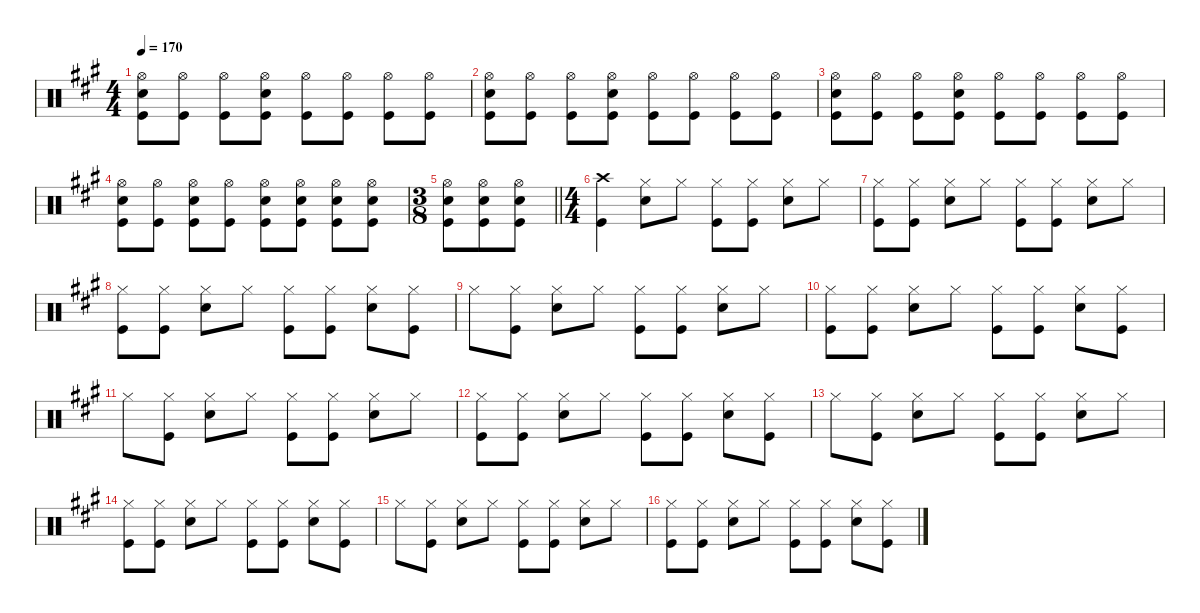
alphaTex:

\defaultSystemsLayout 4
\hideDynamics
\bracketExtendMode nobrackets
\singleTrackTrackNamePolicy hidden
\multiTrackTrackNamePolicy hidden
\firstSystemTrackNameMode fullname
\firstSystemTrackNameOrientation horizontal
\otherSystemsTrackNameOrientation horizontal
\track ("Percussion" "drm.") {defaultSystemsLayout 4 instrument percussion}
\staff {score}
\articulation defaults
\ts (4 4)
\beaming (8 2 2 2 2)
\tempo 170
\clef neutral
\ks a
("Hi-Hat (open)"{acc forcenatural} "Snare (hit) 2"{acc forcenatural} "Kick (hit)"{acc forcenatural}).8{dy f beam Down} ("Hi-Hat (open)"{acc forcenatural} "Kick (hit)"{acc forcenatural}).8{beam Down} ("Hi-Hat (open)"{acc forcenatural} "Kick (hit)"{acc forcenatural}).8{beam Down} ("Hi-Hat (open)"{acc forcenatural} "Snare (hit) 2"{acc forcenatural} "Kick (hit)"{acc forcenatural}).8{beam Down} ("Hi-Hat (open)"{acc forcenatural} "Kick (hit)"{acc forcenatural}).8{beam Down} ("Hi-Hat (open)"{acc forcenatural} "Kick (hit)"{acc forcenatural}).8{beam Down} ("Hi-Hat (open)"{acc forcenatural} "Kick (hit)"{acc forcenatural}).8{beam Down} ("Hi-Hat (open)"{acc forcenatural} "Kick (hit)"{acc forcenatural}).8{beam Down} |
("Hi-Hat (open)"{acc forcenatural} "Snare (hit) 2"{acc forcenatural} "Kick (hit)"{acc forcenatural}).8{beam Down} ("Hi-Hat (open)"{acc forcenatural} "Kick (hit)"{acc forcenatural}).8{beam Down} ("Hi-Hat (open)"{acc forcenatural} "Kick (hit)"{acc forcenatural}).8{beam Down} ("Hi-Hat (open)"{acc forcenatural} "Snare (hit) 2"{acc forcenatural} "Kick (hit)"{acc forcenatural}).8{beam Down} ("Hi-Hat (open)"{acc forcenatural} "Kick (hit)"{acc forcenatural}).8{beam Down} ("Hi-Hat (open)"{acc forcenatural} "Kick (hit)"{acc forcenatural}).8{beam Down} ("Hi-Hat (open)"{acc forcenatural} "Kick (hit)"{acc forcenatural}).8{beam Down} ("Hi-Hat (open)"{acc forcenatural} "Kick (hit)"{acc forcenatural}).8{beam Down} |
("Hi-Hat (open)"{acc forcenatural} "Snare (hit) 2"{acc forcenatural} "Kick (hit)"{acc forcenatural}).8{beam Down} ("Hi-Hat (open)"{acc forcenatural} "Kick (hit)"{acc forcenatural}).8{beam Down} ("Hi-Hat (open)"{acc forcenatural} "Kick (hit)"{acc forcenatural}).8{beam Down} ("Hi-Hat (open)"{acc forcenatural} "Snare (hit) 2"{acc forcenatural} "Kick (hit)"{acc forcenatural}).8{beam Down} ("Hi-Hat (open)"{acc forcenatural} "Kick (hit)"{acc forcenatural}).8{beam Down} ("Hi-Hat (open)"{acc forcenatural} "Kick (hit)"{acc forcenatural}).8{beam Down} ("Hi-Hat (open)"{acc forcenatural} "Kick (hit)"{acc forcenatural}).8{beam Down} ("Hi-Hat (open)"{acc forcenatural} "Kick (hit)"{acc forcenatural}).8{beam Down} |
("Hi-Hat (open)"{acc forcenatural} "Snare (hit) 2"{acc forcenatural} "Kick (hit)"{acc forcenatural}).8{beam Down} ("Hi-Hat (open)"{acc forcenatural} "Kick (hit)"{acc forcenatural}).8{beam Down} ("Hi-Hat (open)"{acc forcenatural} "Snare (hit) 2"{acc forcenatural} "Kick (hit)"{acc forcenatural}).8{beam Down} ("Hi-Hat (open)"{acc forcenatural} "Kick (hit)"{acc forcenatural}).8{beam Down} ("Hi-Hat (open)"{acc forcenatural} "Snare (hit) 2"{acc forcenatural} "Kick (hit)"{acc forcenatural}).8{beam Down} ("Hi-Hat (open)"{acc forcenatural} "Snare (hit) 2"{acc forcenatural} "Kick (hit)"{acc forcenatural}).8{beam Down} ("Hi-Hat (open)"{acc forcenatural} "Snare (hit) 2"{acc forcenatural} "Kick (hit)"{acc forcenatural}).8{beam Down} ("Hi-Hat (open)"{acc forcenatural} "Snare (hit) 2"{acc forcenatural} "Kick (hit)"{acc forcenatural}).8{beam Down} |
\ts (3 8)
\beaming (8 3)
\barLineRight lightlight
("Hi-Hat (open)"{acc forcenatural} "Snare (hit) 2"{acc forcenatural} "Kick (hit)"{acc forcenatural}).8{beam Down} ("Hi-Hat (open)"{acc forcenatural} "Snare (hit) 2"{acc forcenatural} "Kick (hit)"{acc forcenatural}).8{beam Down} ("Hi-Hat (open)"{acc forcenatural} "Snare (hit) 2"{acc forcenatural} "Kick (hit)"{acc forcenatural}).8{beam Down} |
\ts (4 4)
\beaming (8 2 2 2 2)
("Crash high (hit)"{acc forcenatural} "Kick (hit)"{acc forcenatural}).4{beam Down} ("Hi-Hat (closed)"{acc forcenatural} "Snare (hit) 2"{acc forcenatural}).8{beam Down} "Hi-Hat (closed)"{acc forcenatural}.8{beam Down} ("Hi-Hat (closed)"{acc forcenatural} "Kick (hit)"{acc forcenatural}).8{beam Down} ("Hi-Hat (closed)"{acc forcenatural} "Kick (hit)"{acc forcenatural}).8{beam Down} ("Hi-Hat (closed)"{acc forcenatural} "Snare (hit) 2"{acc forcenatural}).8{beam Down} "Hi-Hat (closed)"{acc forcenatural}.8{beam Down} |
("Hi-Hat (closed)"{acc forcenatural} "Kick (hit)"{acc forcenatural}).8{beam Down} ("Hi-Hat (closed)"{acc forcenatural} "Kick (hit)"{acc forcenatural}).8{beam Down} ("Hi-Hat (closed)"{acc forcenatural} "Snare (hit) 2"{acc forcenatural}).8{beam Down} "Hi-Hat (closed)"{acc forcenatural}.8{beam Down} ("Hi-Hat (closed)"{acc forcenatural} "Kick (hit)"{acc forcenatural}).8{beam Down} ("Hi-Hat (closed)"{acc forcenatural} "Kick (hit)"{acc forcenatural}).8{beam Down} ("Hi-Hat (closed)"{acc forcenatural} "Snare (hit) 2"{acc forcenatural}).8{beam Down} "Hi-Hat (closed)"{acc forcenatural}.8{beam Down} |
("Hi-Hat (closed)"{acc forcenatural} "Kick (hit)"{acc forcenatural}).8{beam Down} ("Hi-Hat (closed)"{acc forcenatural} "Kick (hit)"{acc forcenatural}).8{beam Down} ("Hi-Hat (closed)"{acc forcenatural} "Snare (hit) 2"{acc forcenatural}).8{beam Down} "Hi-Hat (closed)"{acc forcenatural}.8{beam Down} ("Hi-Hat (closed)"{acc forcenatural} "Kick (hit)"{acc forcenatural}).8{beam Down} ("Hi-Hat (closed)"{acc forcenatural} "Kick (hit)"{acc forcenatural}).8{beam Down} ("Hi-Hat (closed)"{acc forcenatural} "Snare (hit) 2"{acc forcenatural}).8{beam Down} ("Hi-Hat (closed)"{acc forcenatural} "Kick (hit)"{acc forcenatural}).8{beam Down} |
"Hi-Hat (closed)"{acc forcenatural}.8{beam Down} ("Hi-Hat (closed)"{acc forcenatural} "Kick (hit)"{acc forcenatural}).8{beam Down} ("Hi-Hat (closed)"{acc forcenatural} "Snare (hit) 2"{acc forcenatural}).8{beam Down} "Hi-Hat (closed)"{acc forcenatural}.8{beam Down} ("Hi-Hat (closed)"{acc forcenatural} "Kick (hit)"{acc forcenatural}).8{beam Down} ("Hi-Hat (closed)"{acc forcenatural} "Kick (hit)"{acc forcenatural}).8{beam Down} ("Hi-Hat (closed)"{acc forcenatural} "Snare (hit) 2"{acc forcenatural}).8{beam Down} "Hi-Hat (closed)"{acc forcenatural}.8{beam Down} |
("Hi-Hat (closed)"{acc forcenatural} "Kick (hit)"{acc forcenatural}).8{beam Down} ("Hi-Hat (closed)"{acc forcenatural} "Kick (hit)"{acc forcenatural}).8{beam Down} ("Hi-Hat (closed)"{acc forcenatural} "Snare (hit) 2"{acc forcenatural}).8{beam Down} "Hi-Hat (closed)"{acc forcenatural}.8{beam Down} ("Hi-Hat (closed)"{acc forcenatural} "Kick (hit)"{acc forcenatural}).8{beam Down} ("Hi-Hat (closed)"{acc forcenatural} "Kick (hit)"{acc forcenatural}).8{beam Down} ("Hi-Hat (closed)"{acc forcenatural} "Snare (hit) 2"{acc forcenatural}).8{beam Down} ("Hi-Hat (closed)"{acc forcenatural} "Kick (hit)"{acc forcenatural}).8{beam Down} |
"Hi-Hat (closed)"{acc forcenatural}.8{beam Down} ("Hi-Hat (closed)"{acc forcenatural} "Kick (hit)"{acc forcenatural}).8{beam Down} ("Hi-Hat (closed)"{acc forcenatural} "Snare (hit) 2"{acc forcenatural}).8{beam Down} "Hi-Hat (closed)"{acc forcenatural}.8{beam Down} ("Hi-Hat (closed)"{acc forcenatural} "Kick (hit)"{acc forcenatural}).8{beam Down} ("Hi-Hat (closed)"{acc forcenatural} "Kick (hit)"{acc forcenatural}).8{beam Down} ("Hi-Hat (closed)"{acc forcenatural} "Snare (hit) 2"{acc forcenatural}).8{beam Down} "Hi-Hat (closed)"{acc forcenatural}.8{beam Down} |
("Hi-Hat (closed)"{acc forcenatural} "Kick (hit)"{acc forcenatural}).8{beam Down} ("Hi-Hat (closed)"{acc forcenatural} "Kick (hit)"{acc forcenatural}).8{beam Down} ("Hi-Hat (closed)"{acc forcenatural} "Snare (hit) 2"{acc forcenatural}).8{beam Down} "Hi-Hat (closed)"{acc forcenatural}.8{beam Down} ("Hi-Hat (closed)"{acc forcenatural} "Kick (hit)"{acc forcenatural}).8{beam Down} ("Hi-Hat (closed)"{acc forcenatural} "Kick (hit)"{acc forcenatural}).8{beam Down} ("Hi-Hat (closed)"{acc forcenatural} "Snare (hit) 2"{acc forcenatural}).8{beam Down} ("Hi-Hat (closed)"{acc forcenatural} "Kick (hit)"{acc forcenatural}).8{beam Down} |
"Hi-Hat (closed)"{acc forcenatural}.8{beam Down} ("Hi-Hat (closed)"{acc forcenatural} "Kick (hit)"{acc forcenatural}).8{beam Down} ("Hi-Hat (closed)"{acc forcenatural} "Snare (hit) 2"{acc forcenatural}).8{beam Down} "Hi-Hat (closed)"{acc forcenatural}.8{beam Down} ("Hi-Hat (closed)"{acc forcenatural} "Kick (hit)"{acc forcenatural}).8{beam Down} ("Hi-Hat (closed)"{acc forcenatural} "Kick (hit)"{acc forcenatural}).8{beam Down} ("Hi-Hat (closed)"{acc forcenatural} "Snare (hit) 2"{acc forcenatural}).8{beam Down} "Hi-Hat (closed)"{acc forcenatural}.8{beam Down} |
("Hi-Hat (closed)"{acc forcenatural} "Kick (hit)"{acc forcenatural}).8{beam Down} ("Hi-Hat (closed)"{acc forcenatural} "Kick (hit)"{acc forcenatural}).8{beam Down} ("Hi-Hat (closed)"{acc forcenatural} "Snare (hit) 2"{acc forcenatural}).8{beam Down} "Hi-Hat (closed)"{acc forcenatural}.8{beam Down} ("Hi-Hat (closed)"{acc forcenatural} "Kick (hit)"{acc forcenatural}).8{beam Down} ("Hi-Hat (closed)"{acc forcenatural} "Kick (hit)"{acc forcenatural}).8{beam Down} ("Hi-Hat (closed)"{acc forcenatural} "Snare (hit) 2"{acc forcenatural}).8{beam Down} ("Hi-Hat (closed)"{acc forcenatural} "Kick (hit)"{acc forcenatural}).8{beam Down} |
"Hi-Hat (closed)"{acc forcenatural}.8{beam Down} ("Hi-Hat (closed)"{acc forcenatural} "Kick (hit)"{acc forcenatural}).8{beam Down} ("Hi-Hat (closed)"{acc forcenatural} "Snare (hit) 2"{acc forcenatural}).8{beam Down} "Hi-Hat (closed)"{acc forcenatural}.8{beam Down} ("Hi-Hat (closed)"{acc forcenatural} "Kick (hit)"{acc forcenatural}).8{beam Down} ("Hi-Hat (closed)"{acc forcenatural} "Kick (hit)"{acc forcenatural}).8{beam Down} ("Hi-Hat (closed)"{acc forcenatural} "Snare (hit) 2"{acc forcenatural}).8{beam Down} "Hi-Hat (closed)"{acc forcenatural}.8{beam Down} |
("Hi-Hat (closed)"{acc forcenatural} "Kick (hit)"{acc forcenatural}).8{beam Down} ("Hi-Hat (closed)"{acc forcenatural} "Kick (hit)"{acc forcenatural}).8{beam Down} ("Hi-Hat (closed)"{acc forcenatural} "Snare (hit) 2"{acc forcenatural}).8{beam Down} "Hi-Hat (closed)"{acc forcenatural}.8{beam Down} ("Hi-Hat (closed)"{acc forcenatural} "Kick (hit)"{acc forcenatural}).8{beam Down} ("Hi-Hat (closed)"{acc forcenatural} "Kick (hit)"{acc forcenatural}).8{beam Down} ("Hi-Hat (closed)"{acc forcenatural} "Snare (hit) 2"{acc forcenatural}).8{beam Down} ("Hi-Hat (closed)"{acc forcenatural} "Kick (hit)"{acc forcenatural}).8{beam Down}
